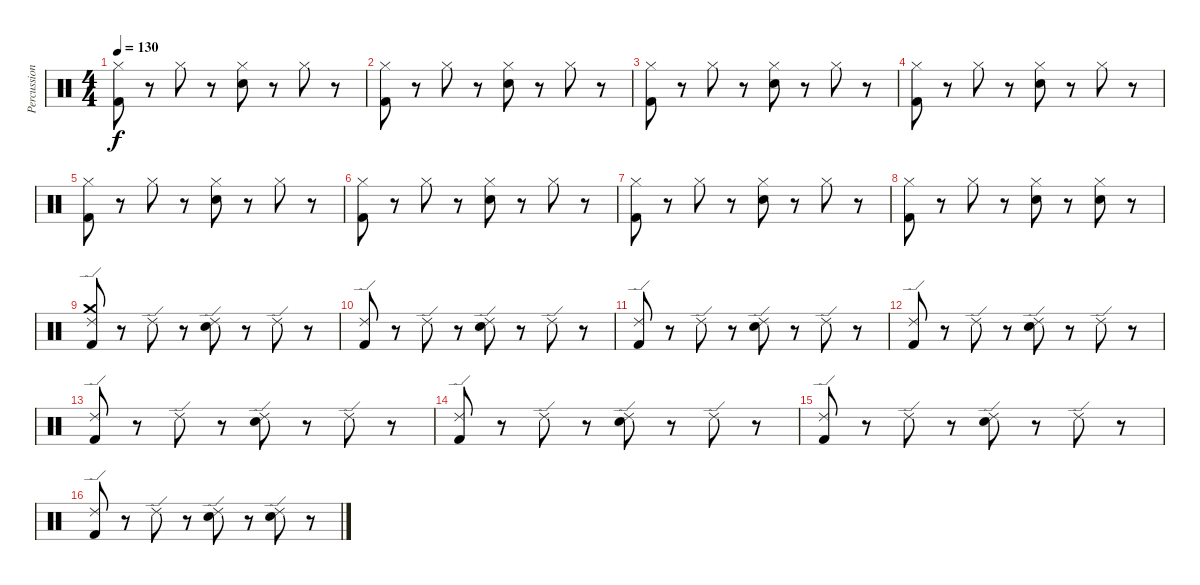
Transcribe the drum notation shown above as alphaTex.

\track ("Percussion" "Percussion") {instrument percussion}
\staff {score}
\articulation defaults
\ts (4 4)
\tempo 130
\clef neutral
\ks c
("Hi-Hat (closed)" "Kick (hit) 2").8{dy f} r.8 "Hi-Hat (closed)".8 r.8 ("Hi-Hat (closed)" "Snare (hit) 2").8 r.8 "Hi-Hat (closed)".8 r.8 |
("Hi-Hat (closed)" "Kick (hit) 2").8 r.8 "Hi-Hat (closed)".8 r.8 ("Hi-Hat (closed)" "Snare (hit) 2").8 r.8 "Hi-Hat (closed)".8 r.8 |
("Hi-Hat (closed)" "Kick (hit) 2").8 r.8 "Hi-Hat (closed)".8 r.8 ("Hi-Hat (closed)" "Snare (hit) 2").8 r.8 "Hi-Hat (closed)".8 r.8 |
("Hi-Hat (closed)" "Kick (hit) 2").8 r.8 "Hi-Hat (closed)".8 r.8 ("Hi-Hat (closed)" "Snare (hit) 2").8 r.8 "Hi-Hat (closed)".8 r.8 |
("Hi-Hat (closed)" "Kick (hit) 2").8 r.8 "Hi-Hat (closed)".8 r.8 ("Hi-Hat (closed)" "Snare (hit) 2").8 r.8 "Hi-Hat (closed)".8 r.8 |
("Hi-Hat (closed)" "Kick (hit) 2").8 r.8 "Hi-Hat (closed)".8 r.8 ("Hi-Hat (closed)" "Snare (hit) 2").8 r.8 "Hi-Hat (closed)".8 r.8 |
("Hi-Hat (closed)" "Kick (hit) 2").8 r.8 "Hi-Hat (closed)".8 r.8 ("Hi-Hat (closed)" "Snare (hit) 2").8 r.8 "Hi-Hat (closed)".8 r.8 |
("Hi-Hat (closed)" "Kick (hit) 2").8 r.8 "Hi-Hat (closed)".8 r.8 ("Hi-Hat (closed)" "Snare (hit) 2").8 r.8 ("Hi-Hat (closed)" "Snare (hit) 2").8 r.8 |
("Crash medium (hit)" "Ride (edge) 2" "Kick (hit) 2").8 r.8 "Ride (edge) 2".8 r.8 ("Ride (edge) 2" "Snare (hit) 2").8 r.8 "Ride (edge) 2".8 r.8 |
("Ride (edge) 2" "Kick (hit) 2").8 r.8 "Ride (edge) 2".8 r.8 ("Ride (edge) 2" "Snare (hit) 2").8 r.8 "Ride (edge) 2".8 r.8 |
("Ride (edge) 2" "Kick (hit) 2").8 r.8 "Ride (edge) 2".8 r.8 ("Ride (edge) 2" "Snare (hit) 2").8 r.8 "Ride (edge) 2".8 r.8 |
("Ride (edge) 2" "Kick (hit) 2").8 r.8 "Ride (edge) 2".8 r.8 ("Ride (edge) 2" "Snare (hit) 2").8 r.8 "Ride (edge) 2".8 r.8 |
("Ride (edge) 2" "Kick (hit) 2").8 r.8 "Ride (edge) 2".8 r.8 ("Ride (edge) 2" "Snare (hit) 2").8 r.8 "Ride (edge) 2".8 r.8 |
("Ride (edge) 2" "Kick (hit) 2").8 r.8 "Ride (edge) 2".8 r.8 ("Ride (edge) 2" "Snare (hit) 2").8 r.8 "Ride (edge) 2".8 r.8 |
("Ride (edge) 2" "Kick (hit) 2").8 r.8 "Ride (edge) 2".8 r.8 ("Ride (edge) 2" "Snare (hit) 2").8 r.8 "Ride (edge) 2".8 r.8 |
("Ride (edge) 2" "Kick (hit) 2").8 r.8 "Ride (edge) 2".8 r.8 ("Ride (edge) 2" "Snare (hit) 2").8 r.8 ("Ride (edge) 2" "Snare (hit) 2").8 r.8
